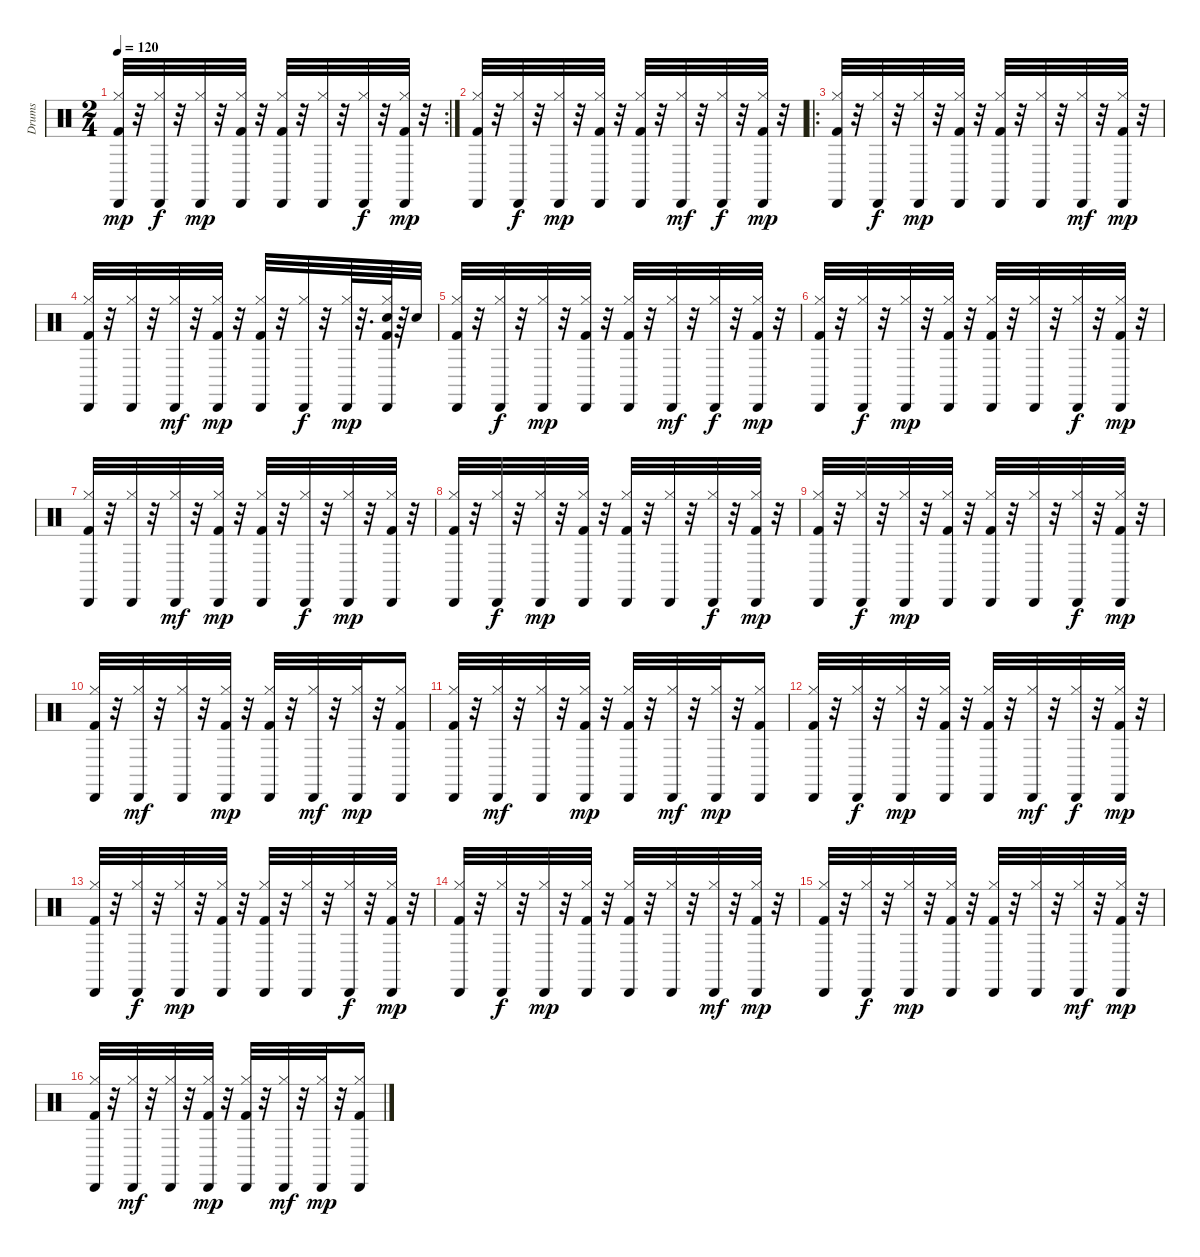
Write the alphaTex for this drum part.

\track ("Drums" "Drums") {instrument percussion}
\staff {score}
\articulation defaults
\rc 2
\ts (2 4)
\tempo 120
\clef neutral
\ks c
("Kick (hit) 2" "Hi-Hat (closed)" "Cabasa (hit)").32{dy mp} r.32 ("Hi-Hat (closed)" "Cabasa (hit)").32{dy f} r.32 ("Hi-Hat (closed)" "Cabasa (hit)").32{dy mp} r.32 ("Kick (hit) 2" "Hi-Hat (closed)" "Cabasa (hit)").32 r.32 ("Kick (hit) 2" "Hi-Hat (closed)" "Cabasa (hit)").32 r.32 ("Hi-Hat (closed)" "Cabasa (hit)").32 r.32 ("Hi-Hat (closed)" "Cabasa (hit)").32{dy f} r.32 ("Kick (hit) 2" "Hi-Hat (closed)" "Cabasa (hit)").32{dy mp} r.32 |
("Kick (hit) 2" "Hi-Hat (closed)" "Cabasa (hit)").32 r.32 ("Hi-Hat (closed)" "Cabasa (hit)").32{dy f} r.32 ("Hi-Hat (closed)" "Cabasa (hit)").32{dy mp} r.32 ("Kick (hit) 2" "Hi-Hat (closed)" "Cabasa (hit)").32 r.32 ("Kick (hit) 2" "Hi-Hat (closed)" "Cabasa (hit)").32 r.32 ("Hi-Hat (closed)" "Cabasa (hit)").32{dy mf} r.32 ("Hi-Hat (closed)" "Cabasa (hit)").32{dy f} r.32 ("Kick (hit) 2" "Hi-Hat (closed)" "Cabasa (hit)").32{dy mp} r.32 |
\ro
("Kick (hit) 2" "Hi-Hat (closed)" "Cabasa (hit)").32 r.32 ("Hi-Hat (closed)" "Cabasa (hit)").32{dy f} r.32 ("Hi-Hat (closed)" "Cabasa (hit)").32{dy mp} r.32 ("Kick (hit) 2" "Hi-Hat (closed)" "Cabasa (hit)").32 r.32 ("Kick (hit) 2" "Hi-Hat (closed)" "Cabasa (hit)").32 r.32 ("Hi-Hat (closed)" "Cabasa (hit)").32 r.32 ("Hi-Hat (closed)" "Cabasa (hit)").32{dy mf} r.32 ("Kick (hit) 2" "Hi-Hat (closed)" "Cabasa (hit)").32{dy mp} r.32 |
("Kick (hit) 2" "Hi-Hat (closed)" "Cabasa (hit)").32 r.32 ("Hi-Hat (closed)" "Cabasa (hit)").32 r.32 ("Hi-Hat (closed)" "Cabasa (hit)").32{dy mf} r.32 ("Kick (hit) 2" "Hi-Hat (closed)" "Cabasa (hit)").32{dy mp} r.32 ("Kick (hit) 2" "Hi-Hat (closed)" "Cabasa (hit)").32 r.32 ("Hi-Hat (closed)" "Cabasa (hit)").32{dy f} r.32 ("Hi-Hat (closed)" "Cabasa (hit)").64{dy mp} r.32{d} ("Electric Snare (hit)" "Kick (hit) 2" "Hi-Hat (closed)" "Cabasa (hit)").64 r.64 "Electric Snare (hit)".32 |
("Kick (hit) 2" "Hi-Hat (closed)" "Cabasa (hit)").32 r.32 ("Hi-Hat (closed)" "Cabasa (hit)").32{dy f} r.32 ("Hi-Hat (closed)" "Cabasa (hit)").32{dy mp} r.32 ("Kick (hit) 2" "Hi-Hat (closed)" "Cabasa (hit)").32 r.32 ("Kick (hit) 2" "Hi-Hat (closed)" "Cabasa (hit)").32 r.32 ("Hi-Hat (closed)" "Cabasa (hit)").32{dy mf} r.32 ("Hi-Hat (closed)" "Cabasa (hit)").32{dy f} r.32 ("Kick (hit) 2" "Hi-Hat (closed)" "Cabasa (hit)").32{dy mp} r.32 |
("Kick (hit) 2" "Hi-Hat (closed)" "Cabasa (hit)").32 r.32 ("Hi-Hat (closed)" "Cabasa (hit)").32{dy f} r.32 ("Hi-Hat (closed)" "Cabasa (hit)").32{dy mp} r.32 ("Kick (hit) 2" "Hi-Hat (closed)" "Cabasa (hit)").32 r.32 ("Kick (hit) 2" "Hi-Hat (closed)" "Cabasa (hit)").32 r.32 ("Hi-Hat (closed)" "Cabasa (hit)").32 r.32 ("Hi-Hat (closed)" "Cabasa (hit)").32{dy f} r.32 ("Kick (hit) 2" "Hi-Hat (closed)" "Cabasa (hit)").32{dy mp} r.32 |
("Kick (hit) 2" "Hi-Hat (closed)" "Cabasa (hit)").32 r.32 ("Hi-Hat (closed)" "Cabasa (hit)").32 r.32 ("Hi-Hat (closed)" "Cabasa (hit)").32{dy mf} r.32 ("Kick (hit) 2" "Hi-Hat (closed)" "Cabasa (hit)").32{dy mp} r.32 ("Kick (hit) 2" "Hi-Hat (closed)" "Cabasa (hit)").32 r.32 ("Hi-Hat (closed)" "Cabasa (hit)").32{dy f} r.32 ("Hi-Hat (closed)" "Cabasa (hit)").32{dy mp} r.32 ("Kick (hit) 2" "Hi-Hat (closed)" "Cabasa (hit)").32 r.32 |
("Kick (hit) 2" "Hi-Hat (closed)" "Cabasa (hit)").32 r.32 ("Hi-Hat (closed)" "Cabasa (hit)").32{dy f} r.32 ("Hi-Hat (closed)" "Cabasa (hit)").32{dy mp} r.32 ("Kick (hit) 2" "Hi-Hat (closed)" "Cabasa (hit)").32 r.32 ("Kick (hit) 2" "Hi-Hat (closed)" "Cabasa (hit)").32 r.32 ("Hi-Hat (closed)" "Cabasa (hit)").32 r.32 ("Hi-Hat (closed)" "Cabasa (hit)").32{dy f} r.32 ("Kick (hit) 2" "Hi-Hat (closed)" "Cabasa (hit)").32{dy mp} r.32 |
("Kick (hit) 2" "Hi-Hat (closed)" "Cabasa (hit)").32 r.32 ("Hi-Hat (closed)" "Cabasa (hit)").32{dy f} r.32 ("Hi-Hat (closed)" "Cabasa (hit)").32{dy mp} r.32 ("Kick (hit) 2" "Hi-Hat (closed)" "Cabasa (hit)").32 r.32 ("Kick (hit) 2" "Hi-Hat (closed)" "Cabasa (hit)").32 r.32 ("Hi-Hat (closed)" "Cabasa (hit)").32 r.32 ("Hi-Hat (closed)" "Cabasa (hit)").32{dy f} r.32 ("Kick (hit) 2" "Hi-Hat (closed)" "Cabasa (hit)").32{dy mp} r.32 |
("Kick (hit) 2" "Hi-Hat (closed)" "Cabasa (hit)").32 r.32 ("Hi-Hat (closed)" "Cabasa (hit)").32{dy mf} r.32 ("Hi-Hat (closed)" "Cabasa (hit)").32 r.32 ("Kick (hit) 2" "Hi-Hat (closed)" "Cabasa (hit)").32{dy mp} r.32 ("Kick (hit) 2" "Hi-Hat (closed)" "Cabasa (hit)").32 r.32 ("Hi-Hat (closed)" "Cabasa (hit)").32{dy mf} r.32 ("Hi-Hat (closed)" "Cabasa (hit)").32{dy mp} r.32 ("Kick (hit) 2" "Hi-Hat (closed)" "Cabasa (hit)").16 |
("Kick (hit) 2" "Hi-Hat (closed)" "Cabasa (hit)").32 r.32 ("Hi-Hat (closed)" "Cabasa (hit)").32{dy mf} r.32 ("Hi-Hat (closed)" "Cabasa (hit)").32 r.32 ("Kick (hit) 2" "Hi-Hat (closed)" "Cabasa (hit)").32{dy mp} r.32 ("Kick (hit) 2" "Hi-Hat (closed)" "Cabasa (hit)").32 r.32 ("Hi-Hat (closed)" "Cabasa (hit)").32{dy mf} r.32 ("Hi-Hat (closed)" "Cabasa (hit)").32{dy mp} r.32 ("Kick (hit) 2" "Hi-Hat (closed)" "Cabasa (hit)").16 |
("Kick (hit) 2" "Hi-Hat (closed)" "Cabasa (hit)").32 r.32 ("Hi-Hat (closed)" "Cabasa (hit)").32{dy f} r.32 ("Hi-Hat (closed)" "Cabasa (hit)").32{dy mp} r.32 ("Kick (hit) 2" "Hi-Hat (closed)" "Cabasa (hit)").32 r.32 ("Kick (hit) 2" "Hi-Hat (closed)" "Cabasa (hit)").32 r.32 ("Hi-Hat (closed)" "Cabasa (hit)").32{dy mf} r.32 ("Hi-Hat (closed)" "Cabasa (hit)").32{dy f} r.32 ("Kick (hit) 2" "Hi-Hat (closed)" "Cabasa (hit)").32{dy mp} r.32 |
("Kick (hit) 2" "Hi-Hat (closed)" "Cabasa (hit)").32 r.32 ("Hi-Hat (closed)" "Cabasa (hit)").32{dy f} r.32 ("Hi-Hat (closed)" "Cabasa (hit)").32{dy mp} r.32 ("Kick (hit) 2" "Hi-Hat (closed)" "Cabasa (hit)").32 r.32 ("Kick (hit) 2" "Hi-Hat (closed)" "Cabasa (hit)").32 r.32 ("Hi-Hat (closed)" "Cabasa (hit)").32 r.32 ("Hi-Hat (closed)" "Cabasa (hit)").32{dy f} r.32 ("Kick (hit) 2" "Hi-Hat (closed)" "Cabasa (hit)").32{dy mp} r.32 |
("Kick (hit) 2" "Hi-Hat (closed)" "Cabasa (hit)").32 r.32 ("Hi-Hat (closed)" "Cabasa (hit)").32{dy f} r.32 ("Hi-Hat (closed)" "Cabasa (hit)").32{dy mp} r.32 ("Kick (hit) 2" "Hi-Hat (closed)" "Cabasa (hit)").32 r.32 ("Kick (hit) 2" "Hi-Hat (closed)" "Cabasa (hit)").32 r.32 ("Hi-Hat (closed)" "Cabasa (hit)").32 r.32 ("Hi-Hat (closed)" "Cabasa (hit)").32{dy mf} r.32 ("Kick (hit) 2" "Hi-Hat (closed)" "Cabasa (hit)").32{dy mp} r.32 |
("Kick (hit) 2" "Hi-Hat (closed)" "Cabasa (hit)").32 r.32 ("Hi-Hat (closed)" "Cabasa (hit)").32{dy f} r.32 ("Hi-Hat (closed)" "Cabasa (hit)").32{dy mp} r.32 ("Kick (hit) 2" "Hi-Hat (closed)" "Cabasa (hit)").32 r.32 ("Kick (hit) 2" "Hi-Hat (closed)" "Cabasa (hit)").32 r.32 ("Hi-Hat (closed)" "Cabasa (hit)").32 r.32 ("Hi-Hat (closed)" "Cabasa (hit)").32{dy mf} r.32 ("Kick (hit) 2" "Hi-Hat (closed)" "Cabasa (hit)").32{dy mp} r.32 |
("Kick (hit) 2" "Hi-Hat (closed)" "Cabasa (hit)").32 r.32 ("Hi-Hat (closed)" "Cabasa (hit)").32{dy mf} r.32 ("Hi-Hat (closed)" "Cabasa (hit)").32 r.32 ("Kick (hit) 2" "Hi-Hat (closed)" "Cabasa (hit)").32{dy mp} r.32 ("Kick (hit) 2" "Hi-Hat (closed)" "Cabasa (hit)").32 r.32 ("Hi-Hat (closed)" "Cabasa (hit)").32{dy mf} r.32 ("Hi-Hat (closed)" "Cabasa (hit)").32{dy mp} r.32 ("Kick (hit) 2" "Hi-Hat (closed)" "Cabasa (hit)").16
